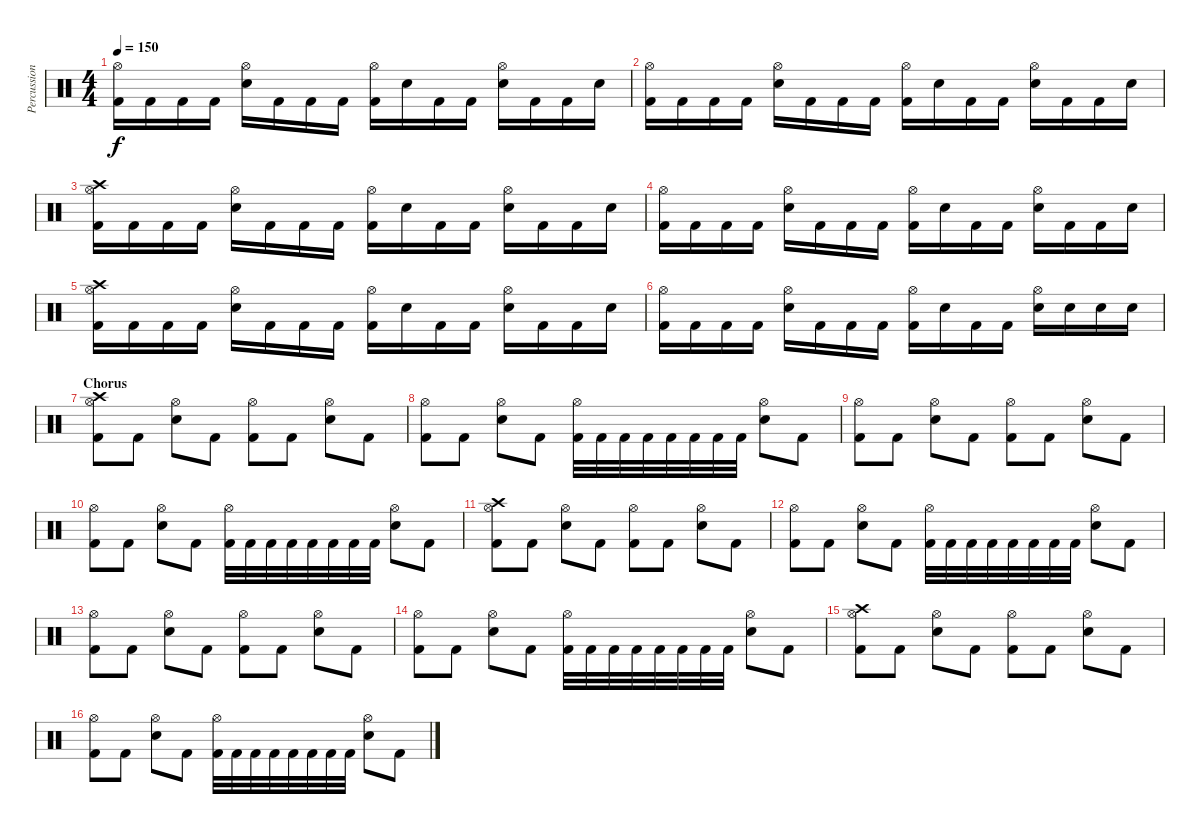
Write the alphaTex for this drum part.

\track ("Percussions" "Percussion") {instrument percussion}
\staff {score}
\articulation defaults
\ts (4 4)
\tempo 150
\clef neutral
\ks c
("Hi-Hat (open)" "Kick (hit) 2").16{dy f} "Kick (hit) 2".16 "Kick (hit) 2".16 "Kick (hit) 2".16 ("Hi-Hat (open)" "Electric Snare (hit)").16 "Kick (hit) 2".16 "Kick (hit) 2".16 "Kick (hit) 2".16 ("Hi-Hat (open)" "Kick (hit) 2").16 "Electric Snare (hit)".16 "Kick (hit) 2".16 "Kick (hit) 2".16 ("Hi-Hat (open)" "Electric Snare (hit)").16 "Kick (hit) 2".16 "Kick (hit) 2".16 "Electric Snare (hit)".16 |
("Hi-Hat (open)" "Kick (hit) 2").16 "Kick (hit) 2".16 "Kick (hit) 2".16 "Kick (hit) 2".16 ("Hi-Hat (open)" "Electric Snare (hit)").16 "Kick (hit) 2".16 "Kick (hit) 2".16 "Kick (hit) 2".16 ("Hi-Hat (open)" "Kick (hit) 2").16 "Electric Snare (hit)".16 "Kick (hit) 2".16 "Kick (hit) 2".16 ("Hi-Hat (open)" "Electric Snare (hit)").16 "Kick (hit) 2".16 "Kick (hit) 2".16 "Electric Snare (hit)".16 |
("Crash high (hit)" "Hi-Hat (open)" "Kick (hit) 2").16 "Kick (hit) 2".16 "Kick (hit) 2".16 "Kick (hit) 2".16 ("Hi-Hat (open)" "Electric Snare (hit)").16 "Kick (hit) 2".16 "Kick (hit) 2".16 "Kick (hit) 2".16 ("Hi-Hat (open)" "Kick (hit) 2").16 "Electric Snare (hit)".16 "Kick (hit) 2".16 "Kick (hit) 2".16 ("Hi-Hat (open)" "Electric Snare (hit)").16 "Kick (hit) 2".16 "Kick (hit) 2".16 "Electric Snare (hit)".16 |
("Hi-Hat (open)" "Kick (hit) 2").16 "Kick (hit) 2".16 "Kick (hit) 2".16 "Kick (hit) 2".16 ("Hi-Hat (open)" "Electric Snare (hit)").16 "Kick (hit) 2".16 "Kick (hit) 2".16 "Kick (hit) 2".16 ("Hi-Hat (open)" "Kick (hit) 2").16 "Electric Snare (hit)".16 "Kick (hit) 2".16 "Kick (hit) 2".16 ("Hi-Hat (open)" "Electric Snare (hit)").16 "Kick (hit) 2".16 "Kick (hit) 2".16 "Electric Snare (hit)".16 |
("Crash high (hit)" "Hi-Hat (open)" "Kick (hit) 2").16 "Kick (hit) 2".16 "Kick (hit) 2".16 "Kick (hit) 2".16 ("Hi-Hat (open)" "Electric Snare (hit)").16 "Kick (hit) 2".16 "Kick (hit) 2".16 "Kick (hit) 2".16 ("Hi-Hat (open)" "Kick (hit) 2").16 "Electric Snare (hit)".16 "Kick (hit) 2".16 "Kick (hit) 2".16 ("Hi-Hat (open)" "Electric Snare (hit)").16 "Kick (hit) 2".16 "Kick (hit) 2".16 "Electric Snare (hit)".16 |
("Hi-Hat (open)" "Kick (hit) 2").16 "Kick (hit) 2".16 "Kick (hit) 2".16 "Kick (hit) 2".16 ("Hi-Hat (open)" "Electric Snare (hit)").16 "Kick (hit) 2".16 "Kick (hit) 2".16 "Kick (hit) 2".16 ("Hi-Hat (open)" "Kick (hit) 2").16 "Electric Snare (hit)".16 "Kick (hit) 2".16 "Kick (hit) 2".16 ("Hi-Hat (open)" "Electric Snare (hit)").16 "Electric Snare (hit)".16 "Electric Snare (hit)".16 "Electric Snare (hit)".16 |
\section ("" "Chorus")
("Crash high (hit)" "Hi-Hat (open)" "Kick (hit) 2").8 "Kick (hit) 2".8 ("Hi-Hat (open)" "Electric Snare (hit)").8 "Kick (hit) 2".8 ("Hi-Hat (open)" "Kick (hit) 2").8 "Kick (hit) 2".8 ("Hi-Hat (open)" "Electric Snare (hit)").8 "Kick (hit) 2".8 |
("Hi-Hat (open)" "Kick (hit) 2").8 "Kick (hit) 2".8 ("Hi-Hat (open)" "Electric Snare (hit)").8 "Kick (hit) 2".8 ("Hi-Hat (open)" "Kick (hit) 2").32 "Kick (hit) 2".32 "Kick (hit) 2".32 "Kick (hit) 2".32 "Kick (hit) 2".32 "Kick (hit) 2".32 "Kick (hit) 2".32 "Kick (hit) 2".32 ("Hi-Hat (open)" "Electric Snare (hit)").8 "Kick (hit) 2".8 |
("Hi-Hat (open)" "Kick (hit) 2").8 "Kick (hit) 2".8 ("Hi-Hat (open)" "Electric Snare (hit)").8 "Kick (hit) 2".8 ("Hi-Hat (open)" "Kick (hit) 2").8 "Kick (hit) 2".8 ("Hi-Hat (open)" "Electric Snare (hit)").8 "Kick (hit) 2".8 |
("Hi-Hat (open)" "Kick (hit) 2").8 "Kick (hit) 2".8 ("Hi-Hat (open)" "Electric Snare (hit)").8 "Kick (hit) 2".8 ("Hi-Hat (open)" "Kick (hit) 2").32 "Kick (hit) 2".32 "Kick (hit) 2".32 "Kick (hit) 2".32 "Kick (hit) 2".32 "Kick (hit) 2".32 "Kick (hit) 2".32 "Kick (hit) 2".32 ("Hi-Hat (open)" "Electric Snare (hit)").8 "Kick (hit) 2".8 |
("Crash high (hit)" "Hi-Hat (open)" "Kick (hit) 2").8 "Kick (hit) 2".8 ("Hi-Hat (open)" "Electric Snare (hit)").8 "Kick (hit) 2".8 ("Hi-Hat (open)" "Kick (hit) 2").8 "Kick (hit) 2".8 ("Hi-Hat (open)" "Electric Snare (hit)").8 "Kick (hit) 2".8 |
("Hi-Hat (open)" "Kick (hit) 2").8 "Kick (hit) 2".8 ("Hi-Hat (open)" "Electric Snare (hit)").8 "Kick (hit) 2".8 ("Hi-Hat (open)" "Kick (hit) 2").32 "Kick (hit) 2".32 "Kick (hit) 2".32 "Kick (hit) 2".32 "Kick (hit) 2".32 "Kick (hit) 2".32 "Kick (hit) 2".32 "Kick (hit) 2".32 ("Hi-Hat (open)" "Electric Snare (hit)").8 "Kick (hit) 2".8 |
("Hi-Hat (open)" "Kick (hit) 2").8 "Kick (hit) 2".8 ("Hi-Hat (open)" "Electric Snare (hit)").8 "Kick (hit) 2".8 ("Hi-Hat (open)" "Kick (hit) 2").8 "Kick (hit) 2".8 ("Hi-Hat (open)" "Electric Snare (hit)").8 "Kick (hit) 2".8 |
("Hi-Hat (open)" "Kick (hit) 2").8 "Kick (hit) 2".8 ("Hi-Hat (open)" "Electric Snare (hit)").8 "Kick (hit) 2".8 ("Hi-Hat (open)" "Kick (hit) 2").32 "Kick (hit) 2".32 "Kick (hit) 2".32 "Kick (hit) 2".32 "Kick (hit) 2".32 "Kick (hit) 2".32 "Kick (hit) 2".32 "Kick (hit) 2".32 ("Hi-Hat (open)" "Electric Snare (hit)").8 "Kick (hit) 2".8 |
("Crash high (hit)" "Hi-Hat (open)" "Kick (hit) 2").8 "Kick (hit) 2".8 ("Hi-Hat (open)" "Electric Snare (hit)").8 "Kick (hit) 2".8 ("Hi-Hat (open)" "Kick (hit) 2").8 "Kick (hit) 2".8 ("Hi-Hat (open)" "Electric Snare (hit)").8 "Kick (hit) 2".8 |
("Hi-Hat (open)" "Kick (hit) 2").8 "Kick (hit) 2".8 ("Hi-Hat (open)" "Electric Snare (hit)").8 "Kick (hit) 2".8 ("Hi-Hat (open)" "Kick (hit) 2").32 "Kick (hit) 2".32 "Kick (hit) 2".32 "Kick (hit) 2".32 "Kick (hit) 2".32 "Kick (hit) 2".32 "Kick (hit) 2".32 "Kick (hit) 2".32 ("Hi-Hat (open)" "Electric Snare (hit)").8 "Kick (hit) 2".8
